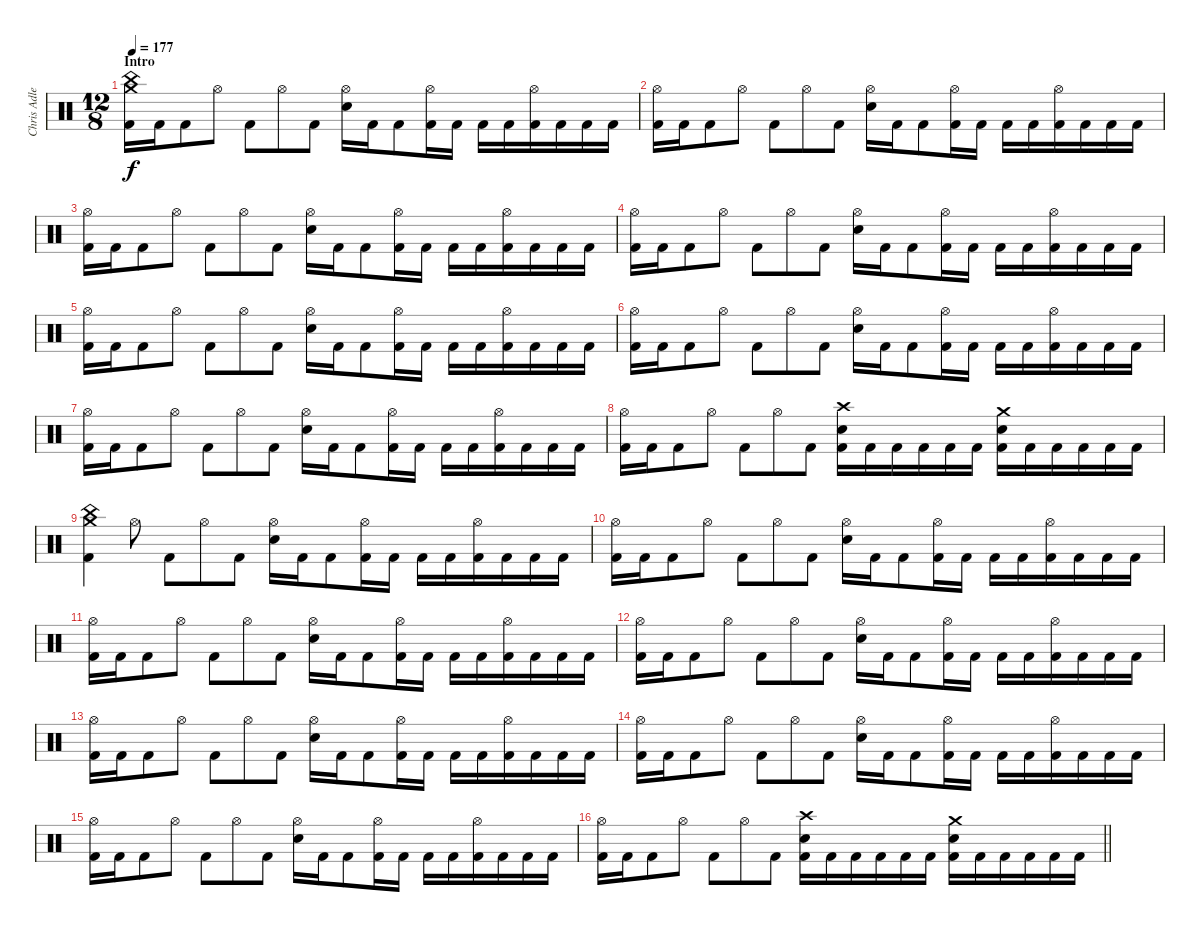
\track ("Chris Adler" "Chris Adle") {instrument percussion}
\staff {score}
\articulation defaults
\ts (12 8)
\section ("" "Intro")
\tempo 177
\clef neutral
\ks c
("Crash medium (hit)" "China (hit)" "Kick (hit) 2").16{dy f} "Kick (hit) 2".16 "Kick (hit) 2".8 "Hi-Hat (open)".8 "Kick (hit) 2".8 "Hi-Hat (open)".8 "Kick (hit) 2".8 ("Hi-Hat (open)" "Snare (hit) 2").16 "Kick (hit) 2".16 "Kick (hit) 2".8 ("Hi-Hat (open)" "Kick (hit) 2").16 "Kick (hit) 2".16 "Kick (hit) 2".16 "Kick (hit) 2".16 ("Hi-Hat (open)" "Kick (hit) 2").16 "Kick (hit) 2".16 "Kick (hit) 2".16 "Kick (hit) 2".16 |
("Hi-Hat (open)" "Kick (hit) 2").16 "Kick (hit) 2".16 "Kick (hit) 2".8 "Hi-Hat (open)".8 "Kick (hit) 2".8 "Hi-Hat (open)".8 "Kick (hit) 2".8 ("Hi-Hat (open)" "Snare (hit) 2").16 "Kick (hit) 2".16 "Kick (hit) 2".8 ("Hi-Hat (open)" "Kick (hit) 2").16 "Kick (hit) 2".16 "Kick (hit) 2".16 "Kick (hit) 2".16 ("Hi-Hat (open)" "Kick (hit) 2").16 "Kick (hit) 2".16 "Kick (hit) 2".16 "Kick (hit) 2".16 |
("Hi-Hat (open)" "Kick (hit) 2").16 "Kick (hit) 2".16 "Kick (hit) 2".8 "Hi-Hat (open)".8 "Kick (hit) 2".8 "Hi-Hat (open)".8 "Kick (hit) 2".8 ("Hi-Hat (open)" "Snare (hit) 2").16 "Kick (hit) 2".16 "Kick (hit) 2".8 ("Hi-Hat (open)" "Kick (hit) 2").16 "Kick (hit) 2".16 "Kick (hit) 2".16 "Kick (hit) 2".16 ("Hi-Hat (open)" "Kick (hit) 2").16 "Kick (hit) 2".16 "Kick (hit) 2".16 "Kick (hit) 2".16 |
("Hi-Hat (open)" "Kick (hit) 2").16 "Kick (hit) 2".16 "Kick (hit) 2".8 "Hi-Hat (open)".8 "Kick (hit) 2".8 "Hi-Hat (open)".8 "Kick (hit) 2".8 ("Hi-Hat (open)" "Snare (hit) 2").16 "Kick (hit) 2".16 "Kick (hit) 2".8 ("Hi-Hat (open)" "Kick (hit) 2").16 "Kick (hit) 2".16 "Kick (hit) 2".16 "Kick (hit) 2".16 ("Hi-Hat (open)" "Kick (hit) 2").16 "Kick (hit) 2".16 "Kick (hit) 2".16 "Kick (hit) 2".16 |
("Hi-Hat (open)" "Kick (hit) 2").16 "Kick (hit) 2".16 "Kick (hit) 2".8 "Hi-Hat (open)".8 "Kick (hit) 2".8 "Hi-Hat (open)".8 "Kick (hit) 2".8 ("Hi-Hat (open)" "Snare (hit) 2").16 "Kick (hit) 2".16 "Kick (hit) 2".8 ("Hi-Hat (open)" "Kick (hit) 2").16 "Kick (hit) 2".16 "Kick (hit) 2".16 "Kick (hit) 2".16 ("Hi-Hat (open)" "Kick (hit) 2").16 "Kick (hit) 2".16 "Kick (hit) 2".16 "Kick (hit) 2".16 |
("Hi-Hat (open)" "Kick (hit) 2").16 "Kick (hit) 2".16 "Kick (hit) 2".8 "Hi-Hat (open)".8 "Kick (hit) 2".8 "Hi-Hat (open)".8 "Kick (hit) 2".8 ("Hi-Hat (open)" "Snare (hit) 2").16 "Kick (hit) 2".16 "Kick (hit) 2".8 ("Hi-Hat (open)" "Kick (hit) 2").16 "Kick (hit) 2".16 "Kick (hit) 2".16 "Kick (hit) 2".16 ("Hi-Hat (open)" "Kick (hit) 2").16 "Kick (hit) 2".16 "Kick (hit) 2".16 "Kick (hit) 2".16 |
("Hi-Hat (open)" "Kick (hit) 2").16 "Kick (hit) 2".16 "Kick (hit) 2".8 "Hi-Hat (open)".8 "Kick (hit) 2".8 "Hi-Hat (open)".8 "Kick (hit) 2".8 ("Hi-Hat (open)" "Snare (hit) 2").16 "Kick (hit) 2".16 "Kick (hit) 2".8 ("Hi-Hat (open)" "Kick (hit) 2").16 "Kick (hit) 2".16 "Kick (hit) 2".16 "Kick (hit) 2".16 ("Hi-Hat (open)" "Kick (hit) 2").16 "Kick (hit) 2".16 "Kick (hit) 2".16 "Kick (hit) 2".16 |
("Hi-Hat (open)" "Kick (hit) 2").16 "Kick (hit) 2".16 "Kick (hit) 2".8 "Hi-Hat (open)".8 "Kick (hit) 2".8 "Hi-Hat (open)".8 "Kick (hit) 2".8 ("Crash high (hit)" "Kick (hit) 2" "Snare (hit) 2").16 "Kick (hit) 2".16 "Kick (hit) 2".16 "Kick (hit) 2".16 "Kick (hit) 2".16 "Kick (hit) 2".16 ("Crash medium (hit)" "Snare (hit) 2" "Kick (hit) 2").16 "Kick (hit) 2".16 "Kick (hit) 2".16 "Kick (hit) 2".16 "Kick (hit) 2".16 "Kick (hit) 2".16 |
("Crash medium (hit)" "China (hit)" "Kick (hit) 2").4 "Hi-Hat (open)".8 "Kick (hit) 2".8 "Hi-Hat (open)".8 "Kick (hit) 2".8 ("Hi-Hat (open)" "Snare (hit) 2").16 "Kick (hit) 2".16 "Kick (hit) 2".8 ("Hi-Hat (open)" "Kick (hit) 2").16 "Kick (hit) 2".16 "Kick (hit) 2".16 "Kick (hit) 2".16 ("Hi-Hat (open)" "Kick (hit) 2").16 "Kick (hit) 2".16 "Kick (hit) 2".16 "Kick (hit) 2".16 |
("Hi-Hat (open)" "Kick (hit) 2").16 "Kick (hit) 2".16 "Kick (hit) 2".8 "Hi-Hat (open)".8 "Kick (hit) 2".8 "Hi-Hat (open)".8 "Kick (hit) 2".8 ("Hi-Hat (open)" "Snare (hit) 2").16 "Kick (hit) 2".16 "Kick (hit) 2".8 ("Hi-Hat (open)" "Kick (hit) 2").16 "Kick (hit) 2".16 "Kick (hit) 2".16 "Kick (hit) 2".16 ("Hi-Hat (open)" "Kick (hit) 2").16 "Kick (hit) 2".16 "Kick (hit) 2".16 "Kick (hit) 2".16 |
("Hi-Hat (open)" "Kick (hit) 2").16 "Kick (hit) 2".16 "Kick (hit) 2".8 "Hi-Hat (open)".8 "Kick (hit) 2".8 "Hi-Hat (open)".8 "Kick (hit) 2".8 ("Hi-Hat (open)" "Snare (hit) 2").16 "Kick (hit) 2".16 "Kick (hit) 2".8 ("Hi-Hat (open)" "Kick (hit) 2").16 "Kick (hit) 2".16 "Kick (hit) 2".16 "Kick (hit) 2".16 ("Hi-Hat (open)" "Kick (hit) 2").16 "Kick (hit) 2".16 "Kick (hit) 2".16 "Kick (hit) 2".16 |
("Hi-Hat (open)" "Kick (hit) 2").16 "Kick (hit) 2".16 "Kick (hit) 2".8 "Hi-Hat (open)".8 "Kick (hit) 2".8 "Hi-Hat (open)".8 "Kick (hit) 2".8 ("Hi-Hat (open)" "Snare (hit) 2").16 "Kick (hit) 2".16 "Kick (hit) 2".8 ("Hi-Hat (open)" "Kick (hit) 2").16 "Kick (hit) 2".16 "Kick (hit) 2".16 "Kick (hit) 2".16 ("Hi-Hat (open)" "Kick (hit) 2").16 "Kick (hit) 2".16 "Kick (hit) 2".16 "Kick (hit) 2".16 |
("Hi-Hat (open)" "Kick (hit) 2").16 "Kick (hit) 2".16 "Kick (hit) 2".8 "Hi-Hat (open)".8 "Kick (hit) 2".8 "Hi-Hat (open)".8 "Kick (hit) 2".8 ("Hi-Hat (open)" "Snare (hit) 2").16 "Kick (hit) 2".16 "Kick (hit) 2".8 ("Hi-Hat (open)" "Kick (hit) 2").16 "Kick (hit) 2".16 "Kick (hit) 2".16 "Kick (hit) 2".16 ("Hi-Hat (open)" "Kick (hit) 2").16 "Kick (hit) 2".16 "Kick (hit) 2".16 "Kick (hit) 2".16 |
("Hi-Hat (open)" "Kick (hit) 2").16 "Kick (hit) 2".16 "Kick (hit) 2".8 "Hi-Hat (open)".8 "Kick (hit) 2".8 "Hi-Hat (open)".8 "Kick (hit) 2".8 ("Hi-Hat (open)" "Snare (hit) 2").16 "Kick (hit) 2".16 "Kick (hit) 2".8 ("Hi-Hat (open)" "Kick (hit) 2").16 "Kick (hit) 2".16 "Kick (hit) 2".16 "Kick (hit) 2".16 ("Hi-Hat (open)" "Kick (hit) 2").16 "Kick (hit) 2".16 "Kick (hit) 2".16 "Kick (hit) 2".16 |
("Hi-Hat (open)" "Kick (hit) 2").16 "Kick (hit) 2".16 "Kick (hit) 2".8 "Hi-Hat (open)".8 "Kick (hit) 2".8 "Hi-Hat (open)".8 "Kick (hit) 2".8 ("Hi-Hat (open)" "Snare (hit) 2").16 "Kick (hit) 2".16 "Kick (hit) 2".8 ("Hi-Hat (open)" "Kick (hit) 2").16 "Kick (hit) 2".16 "Kick (hit) 2".16 "Kick (hit) 2".16 ("Hi-Hat (open)" "Kick (hit) 2").16 "Kick (hit) 2".16 "Kick (hit) 2".16 "Kick (hit) 2".16 |
\barLineRight lightlight
("Hi-Hat (open)" "Kick (hit) 2").16 "Kick (hit) 2".16 "Kick (hit) 2".8 "Hi-Hat (open)".8 "Kick (hit) 2".8 "Hi-Hat (open)".8 "Kick (hit) 2".8 ("Crash high (hit)" "Kick (hit) 2" "Snare (hit) 2").16 "Kick (hit) 2".16 "Kick (hit) 2".16 "Kick (hit) 2".16 "Kick (hit) 2".16 "Kick (hit) 2".16 ("Crash medium (hit)" "Snare (hit) 2" "Kick (hit) 2").16 "Kick (hit) 2".16 "Kick (hit) 2".16 "Kick (hit) 2".16 "Kick (hit) 2".16 "Kick (hit) 2".16
